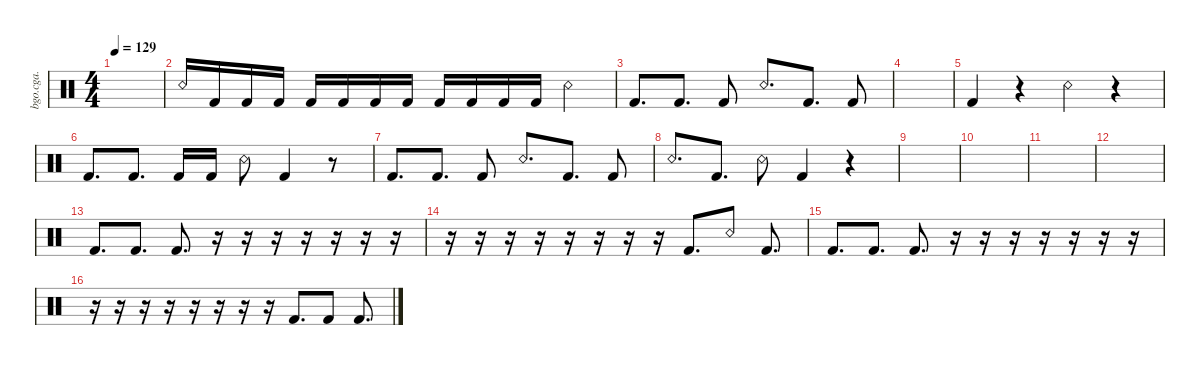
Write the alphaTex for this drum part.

\defaultSystemsLayout 4
\hideDynamics
\bracketExtendMode nobrackets
\otherSystemsTrackNameOrientation horizontal
\track ("Heiko's percussion" "bgo.cga.") {instrument percussion}
\staff {score}
\articulation defaults
\ts (4 4)
\tempo 129
\clef neutral
\ks c
|
"Snare (rim shot)".16{dy mf} "Kick (hit) 2".16 "Kick (hit) 2".16 "Kick (hit) 2".16 "Kick (hit) 2".16 "Kick (hit) 2".16 "Kick (hit) 2".16 "Kick (hit) 2".16 "Kick (hit) 2".16 "Kick (hit) 2".16 "Kick (hit) 2".16 "Kick (hit) 2".16 "Snare (rim shot)".4 |
"Kick (hit) 2".8{d} "Kick (hit) 2".8{d dy p} "Kick (hit) 2".8{dy mf} "Snare (rim shot)".8{d} "Kick (hit) 2".8{d} "Kick (hit) 2".8{dy p} |
|
"Kick (hit) 2".4{dy mf} r.4 "Snare (rim shot)".4 r.4 |
"Kick (hit) 2".8{d dy mp} "Kick (hit) 2".8{d} "Kick (hit) 2".16 "Kick (hit) 2".16 "Snare (rim shot)".8 "Kick (hit) 2".4 r.8 |
"Kick (hit) 2".8{d} "Kick (hit) 2".8{d} "Kick (hit) 2".8 "Snare (rim shot)".8{d} "Kick (hit) 2".8{d} "Kick (hit) 2".8 |
"Snare (rim shot)".8{d} "Kick (hit) 2".8{d} "Snare (rim shot)".8 "Kick (hit) 2".4 r.4 |
|
|
|
|
"Kick (hit) 2".8{d dy mf} "Kick (hit) 2".8{d} "Kick (hit) 2".8{d} r.16 r.16 r.16 r.16 r.16 r.16 r.16 |
r.16 r.16 r.16 r.16 r.16 r.16 r.16 r.16 "Kick (hit) 2".8{d} "Snare (rim shot)".8 "Kick (hit) 2".8{d} |
"Kick (hit) 2".8{d} "Kick (hit) 2".8{d} "Kick (hit) 2".8{d} r.16 r.16 r.16 r.16 r.16 r.16 r.16 |
r.16 r.16 r.16 r.16 r.16 r.16 r.16 r.16 "Kick (hit) 2".8{d} "Kick (hit) 2".8 "Kick (hit) 2".8{d}
